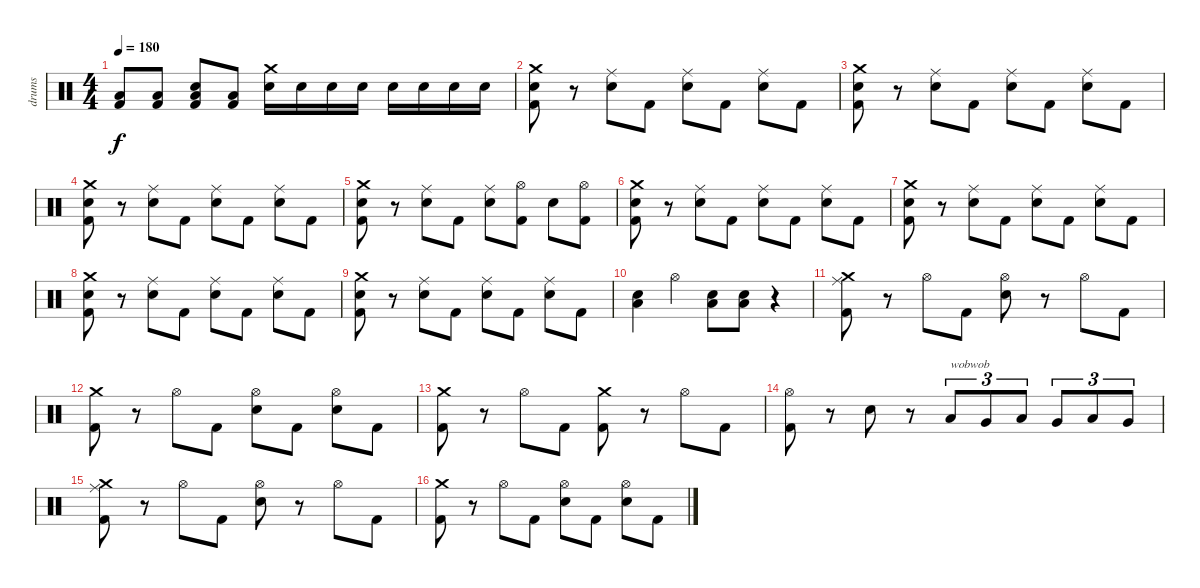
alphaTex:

\track ("drums" "drums") {instrument percussion}
\staff {score}
\articulation defaults
\ts (4 4)
\tempo 180
\clef neutral
\ks c
("Low Floor Tom (hit)" "Kick (hit) 2").8{dy f} ("Low Floor Tom (hit)" "Kick (hit) 2").8 ("Low Floor Tom (hit)" "Snare (hit) 2" "Kick (hit) 2").8 ("Low Floor Tom (hit)" "Kick (hit) 2").8 ("Crash medium (hit)" "Snare (hit) 2").16 "Snare (hit) 2".16 "Snare (hit) 2".16 "Snare (hit) 2".16 "Snare (hit) 2".16 "Snare (hit) 2".16 "Snare (hit) 2".16 "Snare (hit) 2".16 |
("Crash medium (hit)" "Snare (hit) 2" "Kick (hit) 2").8 r.8 ("Ride (middle)" "Snare (hit) 2").8 "Kick (hit) 2".8 ("Ride (middle)" "Snare (hit) 2").8 "Kick (hit) 2".8 ("Ride (middle)" "Snare (hit) 2").8 "Kick (hit) 2".8 |
("Crash medium (hit)" "Snare (hit) 2" "Kick (hit) 2").8 r.8 ("Ride (middle)" "Snare (hit) 2").8 "Kick (hit) 2".8 ("Ride (middle)" "Snare (hit) 2").8 "Kick (hit) 2".8 ("Ride (middle)" "Snare (hit) 2").8 "Kick (hit) 2".8 |
("Crash medium (hit)" "Snare (hit) 2" "Kick (hit) 2").8 r.8 ("Ride (middle)" "Snare (hit) 2").8 "Kick (hit) 2".8 ("Ride (middle)" "Snare (hit) 2").8 "Kick (hit) 2".8 ("Ride (middle)" "Snare (hit) 2").8 "Kick (hit) 2".8 |
("Crash medium (hit)" "Snare (hit) 2" "Kick (hit) 2").8 r.8 ("Ride (middle)" "Snare (hit) 2").8 "Kick (hit) 2".8 ("Ride (middle)" "Snare (hit) 2").8 ("Hi-Hat (open)" "Kick (hit) 2").8 "Snare (hit) 2".8 ("Hi-Hat (open)" "Kick (hit) 2").8 |
("Crash medium (hit)" "Snare (hit) 2" "Kick (hit) 2").8 r.8 ("Ride (middle)" "Snare (hit) 2").8 "Kick (hit) 2".8 ("Ride (middle)" "Snare (hit) 2").8 "Kick (hit) 2".8 ("Ride (middle)" "Snare (hit) 2").8 "Kick (hit) 2".8 |
("Crash medium (hit)" "Snare (hit) 2" "Kick (hit) 2").8 r.8 ("Ride (middle)" "Snare (hit) 2").8 "Kick (hit) 2".8 ("Ride (middle)" "Snare (hit) 2").8 "Kick (hit) 2".8 ("Ride (middle)" "Snare (hit) 2").8 "Kick (hit) 2".8 |
("Crash medium (hit)" "Snare (hit) 2" "Kick (hit) 2").8 r.8 ("Ride (middle)" "Snare (hit) 2").8 "Kick (hit) 2".8 ("Ride (middle)" "Snare (hit) 2").8 "Kick (hit) 2".8 ("Ride (middle)" "Snare (hit) 2").8 "Kick (hit) 2".8 |
("Crash medium (hit)" "Snare (hit) 2" "Kick (hit) 2").8 r.8 ("Ride (middle)" "Snare (hit) 2").8 "Kick (hit) 2".8 ("Ride (middle)" "Snare (hit) 2").8 "Kick (hit) 2".8 ("Ride (middle)" "Snare (hit) 2").8 "Kick (hit) 2".8 |
("Low Floor Tom (hit)" "Snare (hit) 2").4 "Hi-Hat (open)".4 ("Low Floor Tom (hit)" "Snare (hit) 2").8 ("Low Floor Tom (hit)" "Snare (hit) 2").8 r.4 |
("Crash medium (hit)" "Ride (middle)" "Kick (hit) 2").8 r.8 "Hi-Hat (open)".8 "Kick (hit) 2".8 ("Hi-Hat (open)" "Snare (hit) 2").8 r.8 "Hi-Hat (open)".8 "Kick (hit) 2".8 |
("Crash medium (hit)" "Kick (hit) 2").8 r.8 "Hi-Hat (open)".8 "Kick (hit) 2".8 ("Hi-Hat (open)" "Snare (hit) 2").8 "Kick (hit) 2".8 ("Hi-Hat (open)" "Snare (hit) 2").8 "Kick (hit) 2".8 |
("Crash medium (hit)" "Kick (hit) 2").8 r.8 "Hi-Hat (open)".8 "Kick (hit) 2".8 ("Crash medium (hit)" "Kick (hit) 2").8 r.8 "Hi-Hat (open)".8 "Kick (hit) 2".8 |
("Hi-Hat (open)" "Kick (hit) 2").8 r.8 "Snare (hit) 2".8 r.8 "Low Tom (hit)".8{tu (3 2) txt "wobwob"} "Very Low Tom (hit)".8{tu (3 2)} "Low Floor Tom (hit)".8{tu (3 2)} "Very Low Tom (hit)".8{tu (3 2)} "Low Tom (hit)".8{tu (3 2)} "Very Low Tom (hit)".8{tu (3 2)} |
("Crash medium (hit)" "Ride (middle)" "Kick (hit) 2").8 r.8 "Hi-Hat (open)".8 "Kick (hit) 2".8 ("Hi-Hat (open)" "Snare (hit) 2").8 r.8 "Hi-Hat (open)".8 "Kick (hit) 2".8 |
("Crash medium (hit)" "Kick (hit) 2").8 r.8 "Hi-Hat (open)".8 "Kick (hit) 2".8 ("Hi-Hat (open)" "Snare (hit) 2").8 "Kick (hit) 2".8 ("Hi-Hat (open)" "Snare (hit) 2").8 "Kick (hit) 2".8
